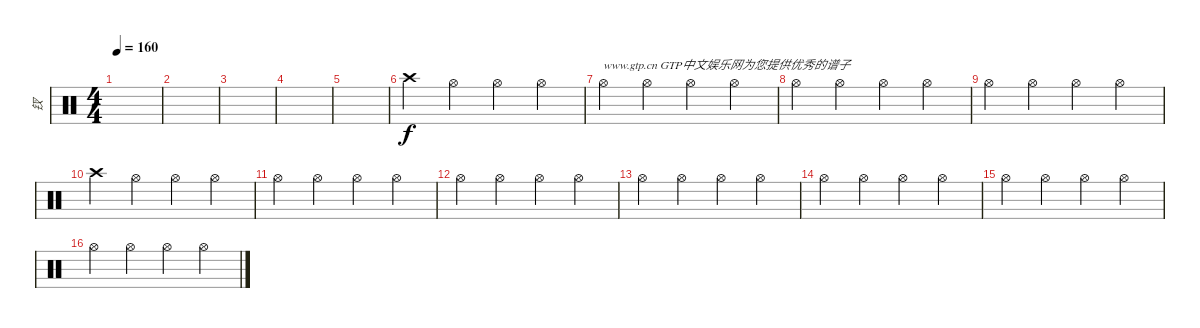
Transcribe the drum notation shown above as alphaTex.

\track ("钗" "钗") {instrument percussion}
\staff {score}
\articulation defaults
\ts (4 4)
\tempo 160
\clef neutral
\ks c
|
|
|
|
|
"Crash high (hit)".4 "Hi-Hat (open)".4 "Hi-Hat (open)".4 "Hi-Hat (open)".4 |
"Hi-Hat (open)".4{txt "www.gtp.cn GTP中文娱乐网为您提供优秀的谱子"} "Hi-Hat (open)".4 "Hi-Hat (open)".4 "Hi-Hat (open)".4 |
"Hi-Hat (open)".4 "Hi-Hat (open)".4 "Hi-Hat (open)".4 "Hi-Hat (open)".4 |
"Hi-Hat (open)".4 "Hi-Hat (open)".4 "Hi-Hat (open)".4 "Hi-Hat (open)".4 |
"Crash high (hit)".4 "Hi-Hat (open)".4 "Hi-Hat (open)".4 "Hi-Hat (open)".4 |
"Hi-Hat (open)".4 "Hi-Hat (open)".4 "Hi-Hat (open)".4 "Hi-Hat (open)".4 |
"Hi-Hat (open)".4 "Hi-Hat (open)".4 "Hi-Hat (open)".4 "Hi-Hat (open)".4 |
"Hi-Hat (open)".4 "Hi-Hat (open)".4 "Hi-Hat (open)".4 "Hi-Hat (open)".4 |
"Hi-Hat (open)".4 "Hi-Hat (open)".4 "Hi-Hat (open)".4 "Hi-Hat (open)".4 |
"Hi-Hat (open)".4 "Hi-Hat (open)".4 "Hi-Hat (open)".4 "Hi-Hat (open)".4 |
"Hi-Hat (open)".4 "Hi-Hat (open)".4 "Hi-Hat (open)".4 "Hi-Hat (open)".4
